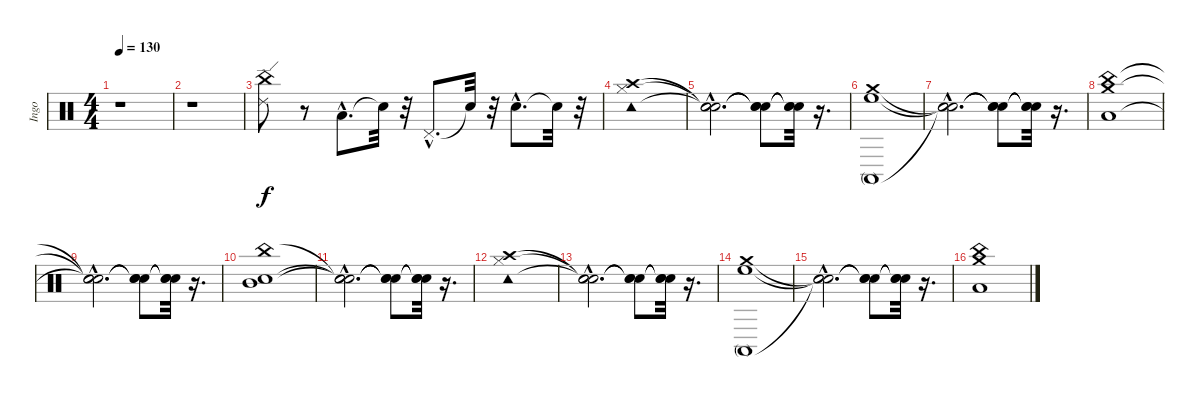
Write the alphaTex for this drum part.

\track ("Ingo" "Ingo") {instrument percussion}
\staff {score}
\articulation defaults
\ts (4 4)
\tempo 130
\clef neutral
\ks c
r.1{dy f} |
r.1 |
("China (hit)" "Ride (edge) 2").8 r.8 "Low Tom (hit)"{hac}.8{d} "Snare (hit)"{t}.32 r.32 "Pedal Hi-Hat (hit)"{hac}.8{d} "Snare (hit)"{t}.32 r.32 "Electric Snare (hit)"{hac}.8{d} "Snare (hit)"{t}.32 r.32 |
("Tambourine (hit)" "Hi-Hat (closed)" "Crash high (hit)").1 |
("Snare (hit)"{hac t} "Snare (hit)"{hac t} "Snare (hit)"{hac t}).2{d} ("Snare (hit)"{t} "Snare (hit)"{t} "Snare (hit)"{t}).8 ("Snare (hit)"{t} "Snare (hit)"{t} "Snare (hit)"{t}).32 r.16{d} |
("Conga high (mute)" "High Floor Tom (hit)" "Crash medium (hit)").1 |
("Snare (hit)"{hac t} "Snare (hit)"{hac t} "Snare (hit)"{hac t}).2{d} ("Snare (hit)"{t} "Snare (hit)"{t} "Snare (hit)"{t}).8 ("Snare (hit)"{t} "Snare (hit)"{t} "Snare (hit)"{t}).32 r.16{d} |
("Crash medium (hit)" "Low Tom (hit)" "China (hit)").1 |
("Snare (hit)"{hac t} "Snare (hit)"{hac t} "Snare (hit)"{hac t}).2{d} ("Snare (hit)"{t} "Snare (hit)"{t} "Snare (hit)"{t}).8 ("Snare (hit)"{t} "Snare (hit)"{t} "Snare (hit)"{t}).32 r.16{d} |
("China (hit)" "Electric Snare (hit)" "Mid Tom (hit)").1 |
("Snare (hit)"{hac t} "Snare (hit)"{hac t} "Snare (hit)"{hac t}).2{d} ("Snare (hit)"{t} "Snare (hit)"{t} "Snare (hit)"{t}).8 ("Snare (hit)"{t} "Snare (hit)"{t} "Snare (hit)"{t}).32 r.16{d} |
("Tambourine (hit)" "Hi-Hat (closed)" "Crash high (hit)").1 |
("Snare (hit)"{hac t} "Snare (hit)"{hac t} "Snare (hit)"{hac t}).2{d} ("Snare (hit)"{t} "Snare (hit)"{t} "Snare (hit)"{t}).8 ("Snare (hit)"{t} "Snare (hit)"{t} "Snare (hit)"{t}).32 r.16{d} |
("Conga high (mute)" "High Floor Tom (hit)" "Crash medium (hit)").1 |
("Snare (hit)"{hac t} "Snare (hit)"{hac t} "Snare (hit)"{hac t}).2{d} ("Snare (hit)"{t} "Snare (hit)"{t} "Snare (hit)"{t}).8 ("Snare (hit)"{t} "Snare (hit)"{t} "Snare (hit)"{t}).32 r.16{d} |
("Crash medium (hit)" "Low Tom (hit)" "China (hit)").1
